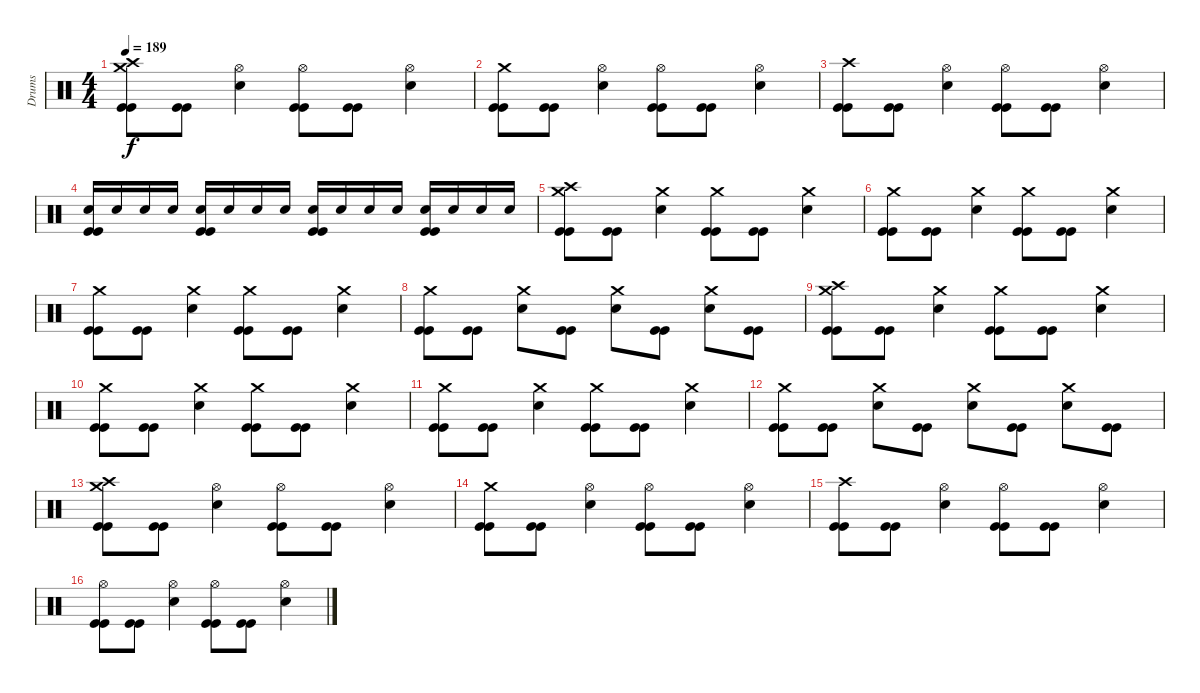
\track ("Drums" "Drums") {instrument percussion}
\staff {score}
\articulation defaults
\ts (4 4)
\tempo 189
\clef neutral
\ks c
("Crash high (hit)" "Crash medium (hit)" "Kick (hit)" "Kick (hit)").8{dy f} ("Kick (hit)" "Kick (hit)").8 ("Hi-Hat (open)" "Electric Snare (hit)").4 ("Hi-Hat (open)" "Kick (hit)" "Kick (hit)").8 ("Kick (hit)" "Kick (hit)").8 ("Hi-Hat (open)" "Electric Snare (hit)").4 |
("Crash medium (hit)" "Kick (hit)" "Kick (hit)").8 ("Kick (hit)" "Kick (hit)").8 ("Hi-Hat (open)" "Electric Snare (hit)").4 ("Hi-Hat (open)" "Kick (hit)" "Kick (hit)").8 ("Kick (hit)" "Kick (hit)").8 ("Hi-Hat (open)" "Electric Snare (hit)").4 |
("Crash high (hit)" "Kick (hit)" "Kick (hit)").8 ("Kick (hit)" "Kick (hit)").8 ("Hi-Hat (open)" "Electric Snare (hit)").4 ("Hi-Hat (open)" "Kick (hit)" "Kick (hit)").8 ("Kick (hit)" "Kick (hit)").8 ("Hi-Hat (open)" "Electric Snare (hit)").4 |
("Electric Snare (hit)" "Kick (hit)" "Kick (hit)").16 "Electric Snare (hit)".16 "Electric Snare (hit)".16 "Electric Snare (hit)".16 ("Electric Snare (hit)" "Kick (hit)" "Kick (hit)").16 "Electric Snare (hit)".16 "Electric Snare (hit)".16 "Electric Snare (hit)".16 ("Electric Snare (hit)" "Kick (hit)" "Kick (hit)").16 "Electric Snare (hit)".16 "Electric Snare (hit)".16 "Electric Snare (hit)".16 ("Electric Snare (hit)" "Kick (hit)" "Kick (hit)").16 "Electric Snare (hit)".16 "Electric Snare (hit)".16 "Electric Snare (hit)".16 |
("Crash high (hit)" "Crash medium (hit)" "Kick (hit)" "Kick (hit)").8 ("Kick (hit)" "Kick (hit)").8 ("Crash medium (hit)" "Electric Snare (hit)").4 ("Crash medium (hit)" "Kick (hit)" "Kick (hit)").8 ("Kick (hit)" "Kick (hit)").8 ("Crash medium (hit)" "Electric Snare (hit)").4 |
("Crash medium (hit)" "Kick (hit)" "Kick (hit)").8 ("Kick (hit)" "Kick (hit)").8 ("Crash medium (hit)" "Electric Snare (hit)").4 ("Crash medium (hit)" "Kick (hit)" "Kick (hit)").8 ("Kick (hit)" "Kick (hit)").8 ("Crash medium (hit)" "Electric Snare (hit)").4 |
("Crash medium (hit)" "Kick (hit)" "Kick (hit)").8 ("Kick (hit)" "Kick (hit)").8 ("Crash medium (hit)" "Electric Snare (hit)").4 ("Crash medium (hit)" "Kick (hit)" "Kick (hit)").8 ("Kick (hit)" "Kick (hit)").8 ("Crash medium (hit)" "Electric Snare (hit)").4 |
("Crash medium (hit)" "Kick (hit)" "Kick (hit)").8 ("Kick (hit)" "Kick (hit)").8 ("Crash medium (hit)" "Electric Snare (hit)").8 ("Kick (hit)" "Kick (hit)").8 ("Crash medium (hit)" "Electric Snare (hit)").8 ("Kick (hit)" "Kick (hit)").8 ("Crash medium (hit)" "Electric Snare (hit)").8 ("Kick (hit)" "Kick (hit)").8 |
("Crash high (hit)" "Crash medium (hit)" "Kick (hit)" "Kick (hit)").8 ("Kick (hit)" "Kick (hit)").8 ("Crash medium (hit)" "Electric Snare (hit)").4 ("Crash medium (hit)" "Kick (hit)" "Kick (hit)").8 ("Kick (hit)" "Kick (hit)").8 ("Crash medium (hit)" "Electric Snare (hit)").4 |
("Crash medium (hit)" "Kick (hit)" "Kick (hit)").8 ("Kick (hit)" "Kick (hit)").8 ("Crash medium (hit)" "Electric Snare (hit)").4 ("Crash medium (hit)" "Kick (hit)" "Kick (hit)").8 ("Kick (hit)" "Kick (hit)").8 ("Crash medium (hit)" "Electric Snare (hit)").4 |
("Crash medium (hit)" "Kick (hit)" "Kick (hit)").8 ("Kick (hit)" "Kick (hit)").8 ("Crash medium (hit)" "Electric Snare (hit)").4 ("Crash medium (hit)" "Kick (hit)" "Kick (hit)").8 ("Kick (hit)" "Kick (hit)").8 ("Crash medium (hit)" "Electric Snare (hit)").4 |
("Crash medium (hit)" "Kick (hit)" "Kick (hit)").8 ("Kick (hit)" "Kick (hit)").8 ("Crash medium (hit)" "Electric Snare (hit)").8 ("Kick (hit)" "Kick (hit)").8 ("Crash medium (hit)" "Electric Snare (hit)").8 ("Kick (hit)" "Kick (hit)").8 ("Crash medium (hit)" "Electric Snare (hit)").8 ("Kick (hit)" "Kick (hit)").8 |
("Crash high (hit)" "Crash medium (hit)" "Kick (hit)" "Kick (hit)").8 ("Kick (hit)" "Kick (hit)").8 ("Hi-Hat (open)" "Electric Snare (hit)").4 ("Hi-Hat (open)" "Kick (hit)" "Kick (hit)").8 ("Kick (hit)" "Kick (hit)").8 ("Hi-Hat (open)" "Electric Snare (hit)").4 |
("Crash medium (hit)" "Kick (hit)" "Kick (hit)").8 ("Kick (hit)" "Kick (hit)").8 ("Hi-Hat (open)" "Electric Snare (hit)").4 ("Hi-Hat (open)" "Kick (hit)" "Kick (hit)").8 ("Kick (hit)" "Kick (hit)").8 ("Hi-Hat (open)" "Electric Snare (hit)").4 |
("Crash high (hit)" "Kick (hit)" "Kick (hit)").8 ("Kick (hit)" "Kick (hit)").8 ("Hi-Hat (open)" "Electric Snare (hit)").4 ("Hi-Hat (open)" "Kick (hit)" "Kick (hit)").8 ("Kick (hit)" "Kick (hit)").8 ("Hi-Hat (open)" "Electric Snare (hit)").4 |
("Hi-Hat (open)" "Kick (hit)" "Kick (hit)").8 ("Kick (hit)" "Kick (hit)").8 ("Hi-Hat (open)" "Electric Snare (hit)").4 ("Hi-Hat (open)" "Kick (hit)" "Kick (hit)").8 ("Kick (hit)" "Kick (hit)").8 ("Hi-Hat (open)" "Electric Snare (hit)").4
